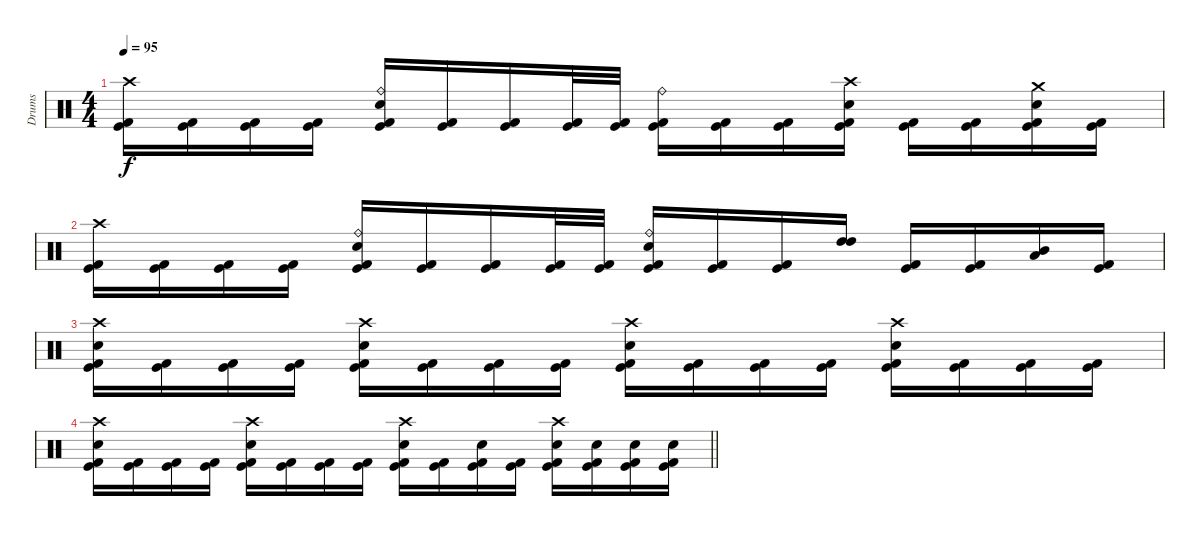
\track ("Drums" "Drums") {instrument percussion}
\staff {score}
\articulation defaults
\ts (4 4)
\tempo 95
\clef neutral
\ks c
("Crash high (hit)" "Kick (hit) 2" "Kick (hit)").16{dy f} ("Kick (hit) 2" "Kick (hit)").16 ("Kick (hit) 2" "Kick (hit)").16 ("Kick (hit) 2" "Kick (hit)").16 ("Ride (bell)" "Snare (hit) 2" "Kick (hit) 2" "Kick (hit)").16 ("Kick (hit) 2" "Kick (hit)").16 ("Kick (hit) 2" "Kick (hit)").16 ("Kick (hit) 2" "Kick (hit)").32 ("Kick (hit) 2" "Kick (hit)").32 ("Ride (bell)" "Kick (hit) 2" "Kick (hit)").16 ("Kick (hit) 2" "Kick (hit)").16 ("Kick (hit) 2" "Kick (hit)").16 ("Crash high (hit)" "Snare (hit) 2" "Kick (hit) 2" "Kick (hit)").16 ("Kick (hit) 2" "Kick (hit)").16 ("Kick (hit) 2" "Kick (hit)").16 ("Crash medium (hit)" "Snare (hit) 2" "Kick (hit) 2" "Kick (hit)").16 ("Kick (hit) 2" "Kick (hit)").16 |
("Crash high (hit)" "Kick (hit) 2" "Kick (hit)").16 ("Kick (hit) 2" "Kick (hit)").16 ("Kick (hit) 2" "Kick (hit)").16 ("Kick (hit) 2" "Kick (hit)").16 ("Ride (bell)" "Snare (hit) 2" "Kick (hit) 2" "Kick (hit)").16 ("Kick (hit) 2" "Kick (hit)").16 ("Kick (hit) 2" "Kick (hit)").16 ("Kick (hit) 2" "Kick (hit)").32 ("Kick (hit) 2" "Kick (hit)").32 ("Ride (bell)" "Snare (hit) 2" "Kick (hit) 2" "Kick (hit)").16 ("Kick (hit) 2" "Kick (hit)").16 ("Kick (hit) 2" "Kick (hit)").16 ("High Tom (hit)" "High Tom (hit)").16 ("Kick (hit) 2" "Kick (hit)").16 ("Kick (hit) 2" "Kick (hit)").16 ("Low Tom (hit)" "Mid Tom (hit)").16 ("Kick (hit) 2" "Kick (hit)").16 |
("Crash high (hit)" "Snare (hit) 2" "Kick (hit) 2" "Kick (hit)").16 ("Kick (hit) 2" "Kick (hit)").16 ("Kick (hit) 2" "Kick (hit)").16 ("Kick (hit) 2" "Kick (hit)").16 ("Crash high (hit)" "Snare (hit) 2" "Kick (hit) 2" "Kick (hit)").16 ("Kick (hit) 2" "Kick (hit)").16 ("Kick (hit) 2" "Kick (hit)").16 ("Kick (hit) 2" "Kick (hit)").16 ("Crash high (hit)" "Snare (hit) 2" "Kick (hit) 2" "Kick (hit)").16 ("Kick (hit) 2" "Kick (hit)").16 ("Kick (hit) 2" "Kick (hit)").16 ("Kick (hit) 2" "Kick (hit)").16 ("Crash high (hit)" "Snare (hit) 2" "Kick (hit) 2" "Kick (hit)").16 ("Kick (hit) 2" "Kick (hit)").16 ("Kick (hit) 2" "Kick (hit)").16 ("Kick (hit) 2" "Kick (hit)").16 |
\barLineRight lightlight
("Crash high (hit)" "Snare (hit) 2" "Kick (hit) 2" "Kick (hit)").16 ("Kick (hit) 2" "Kick (hit)").16 ("Kick (hit) 2" "Kick (hit)").16 ("Kick (hit) 2" "Kick (hit)").16 ("Crash high (hit)" "Snare (hit) 2" "Kick (hit) 2" "Kick (hit)").16 ("Kick (hit) 2" "Kick (hit)").16 ("Kick (hit) 2" "Kick (hit)").16 ("Kick (hit) 2" "Kick (hit)").16 ("Crash high (hit)" "Snare (hit) 2" "Kick (hit) 2" "Kick (hit)").16 ("Kick (hit) 2" "Kick (hit)").16 ("Snare (hit) 2" "Kick (hit) 2" "Kick (hit)").16 ("Kick (hit) 2" "Kick (hit)").16 ("Crash high (hit)" "Snare (hit) 2" "Kick (hit) 2" "Kick (hit)").16 ("Snare (hit) 2" "Kick (hit) 2" "Kick (hit)").16 ("Snare (hit) 2" "Kick (hit) 2" "Kick (hit)").16 ("Snare (hit) 2" "Kick (hit) 2" "Kick (hit)").16
